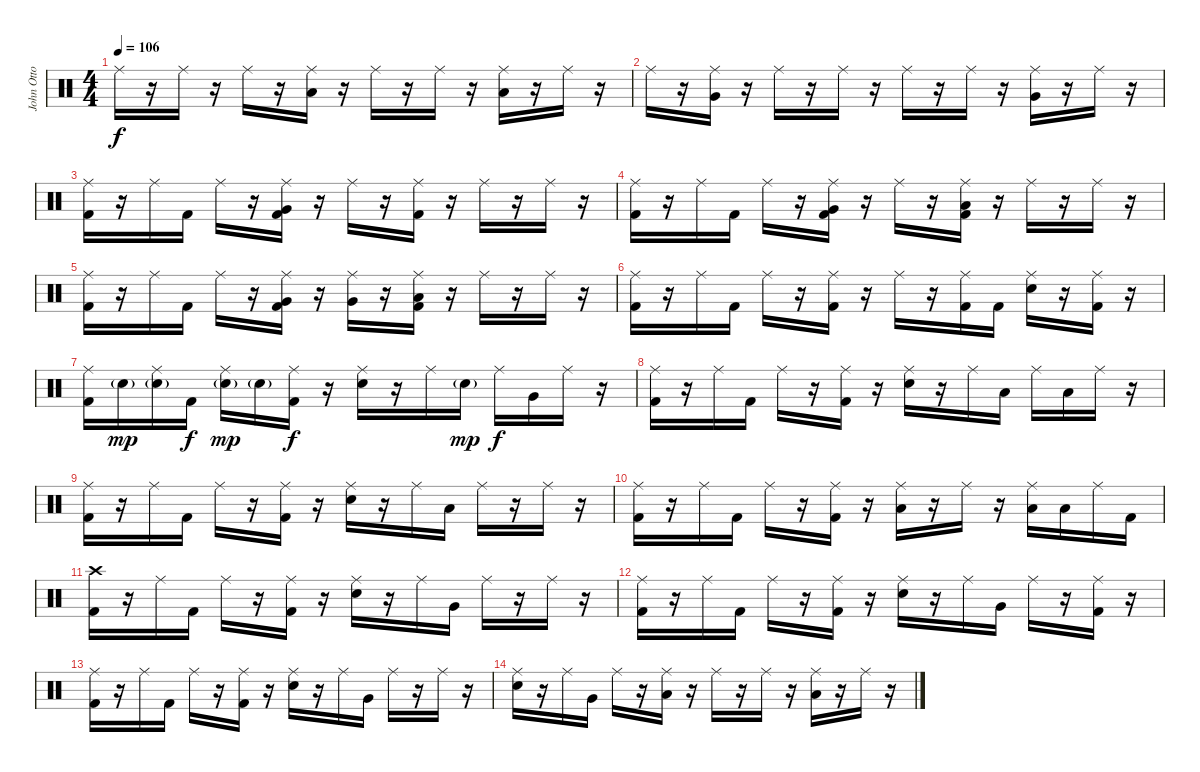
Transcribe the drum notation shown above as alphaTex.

\track ("John Otto - Drums" "John Otto ") {instrument percussion}
\staff {score}
\articulation defaults
\ts (4 4)
\tempo 106
\clef neutral
\ks c "Ride (middle)".16{dy f}
r.16 "Ride (middle)".16 r.16 "Ride (middle)".16 r.16 ("Ride (middle)" "Low Floor Tom (hit)").16 r.16 "Ride (middle)".16 r.16 "Ride (middle)".16 r.16 ("Ride (middle)" "Low Tom (hit)").16 r.16 "Ride (middle)".16 r.16 |
"Ride (middle)".16 r.16 ("Ride (middle)" "Very Low Tom (hit)").16 r.16 "Ride (middle)".16 r.16 "Ride (middle)".16 r.16 "Ride (middle)".16 r.16 "Ride (middle)".16 r.16 ("Ride (middle)" "Very Low Tom (hit)").16 r.16 "Ride (middle)".16 r.16 |
("Ride (middle)" "Kick (hit) 2").16 r.16 "Ride (middle)".16 "Kick (hit) 2".16 "Ride (middle)".16 r.16 ("Ride (middle)" "Very Low Tom (hit)" "Kick (hit) 2").16 r.16 "Ride (middle)".16 r.16 ("Ride (middle)" "Kick (hit) 2").16 r.16 "Ride (middle)".16 r.16 "Ride (middle)".16 r.16 |
("Ride (middle)" "Kick (hit) 2").16 r.16 "Ride (middle)".16 "Kick (hit) 2".16 "Ride (middle)".16 r.16 ("Ride (middle)" "Very Low Tom (hit)" "Kick (hit) 2").16 r.16 "Ride (middle)".16 r.16 ("Ride (middle)" "Low Tom (hit)" "Kick (hit) 2").16 r.16 "Ride (middle)".16 r.16 "Ride (middle)".16 r.16 |
("Ride (middle)" "Kick (hit) 2").16 r.16 "Ride (middle)".16 "Kick (hit) 2".16 "Ride (middle)".16 r.16 ("Ride (middle)" "Very Low Tom (hit)" "Kick (hit) 2").16 r.16 ("Ride (middle)" "Very Low Tom (hit)").16 r.16 ("Ride (middle)" "Low Tom (hit)" "Kick (hit) 2").16 r.16 "Ride (middle)".16 r.16 "Ride (middle)".16 r.16 |
("Ride (middle)" "Kick (hit) 2").16 r.16 "Ride (middle)".16 "Kick (hit) 2".16 "Ride (middle)".16 r.16 ("Ride (middle)" "Kick (hit) 2").16 r.16 "Ride (middle)".16 r.16 ("Ride (middle)" "Kick (hit) 2").16 "Kick (hit) 2".16 ("Ride (middle)" "Snare (hit) 2").16 r.16 ("Ride (middle)" "Kick (hit) 2").16 r.16 |
("Ride (middle)" "Kick (hit) 2").16 "Snare (hit) 2"{g}.16{dy mp} ("Ride (middle)" "Snare (hit) 2"{g}).16 "Kick (hit) 2".16{dy f} ("Ride (middle)" "Snare (hit) 2"{g}).16{dy mp} "Snare (hit) 2"{g}.16 ("Ride (middle)" "Kick (hit) 2").16{dy f} r.16 ("Ride (middle)" "Snare (hit) 2").16 r.16 "Ride (middle)".16 "Snare (hit) 2"{g}.16{dy mp} "Ride (middle)".16{dy f} "Very Low Tom (hit)".16 "Ride (middle)".16 r.16 |
("Ride (middle)" "Kick (hit) 2").16 r.16 "Ride (middle)".16 "Kick (hit) 2".16 "Ride (middle)".16 r.16 ("Ride (middle)" "Kick (hit) 2").16 r.16 ("Ride (middle)" "Snare (hit) 2").16 r.16 "Ride (middle)".16 "Low Tom (hit)".16 "Ride (middle)".16 "Low Floor Tom (hit)".16 "Ride (middle)".16 r.16 |
("Ride (middle)" "Kick (hit) 2").16 r.16 "Ride (middle)".16 "Kick (hit) 2".16 "Ride (middle)".16 r.16 ("Ride (middle)" "Kick (hit) 2").16 r.16 ("Ride (middle)" "Snare (hit) 2").16 r.16 "Ride (middle)".16 "Low Floor Tom (hit)".16 "Ride (middle)".16 r.16 "Ride (middle)".16 r.16 |
("Ride (middle)" "Kick (hit) 2").16 r.16 "Ride (middle)".16 "Kick (hit) 2".16 "Ride (middle)".16 r.16 ("Ride (middle)" "Kick (hit) 2").16 r.16 ("Ride (middle)" "Low Floor Tom (hit)").16 r.16 "Ride (middle)".16 r.16 ("Ride (middle)" "Low Floor Tom (hit)").16 "Low Floor Tom (hit)".16 "Ride (middle)".16 "Kick (hit) 2".16 |
("Crash high (hit)" "Kick (hit) 2").16 r.16 "Ride (middle)".16 "Kick (hit) 2".16 "Ride (middle)".16 r.16 ("Ride (middle)" "Kick (hit) 2").16 r.16 ("Ride (middle)" "Snare (hit) 2").16 r.16 "Ride (middle)".16 "Very Low Tom (hit)".16 "Ride (middle)".16 r.16 "Ride (middle)".16 r.16 |
("Ride (middle)" "Kick (hit) 2").16 r.16 "Ride (middle)".16 "Kick (hit) 2".16 "Ride (middle)".16 r.16 ("Ride (middle)" "Kick (hit) 2").16 r.16 ("Ride (middle)" "Snare (hit) 2").16 r.16 "Ride (middle)".16 "Very Low Tom (hit)".16 "Ride (middle)".16 r.16 ("Ride (middle)" "Kick (hit) 2").16 r.16 |
("Ride (middle)" "Kick (hit) 2").16 r.16 "Ride (middle)".16 "Kick (hit) 2".16 "Ride (middle)".16 r.16 ("Ride (middle)" "Kick (hit) 2").16 r.16 ("Ride (middle)" "Snare (hit) 2").16 r.16 "Ride (middle)".16 "Very Low Tom (hit)".16 "Ride (middle)".16 r.16 "Ride (middle)".16 r.16 |
("Ride (middle)" "Snare (hit) 2").16 r.16 "Ride (middle)".16 "Very Low Tom (hit)".16 "Ride (middle)".16 r.16 ("Ride (middle)" "Low Tom (hit)").16 r.16 "Ride (middle)".16 r.16 "Ride (middle)".16 r.16 ("Ride (middle)" "Low Floor Tom (hit)").16 r.16 "Ride (middle)".16 r.16
